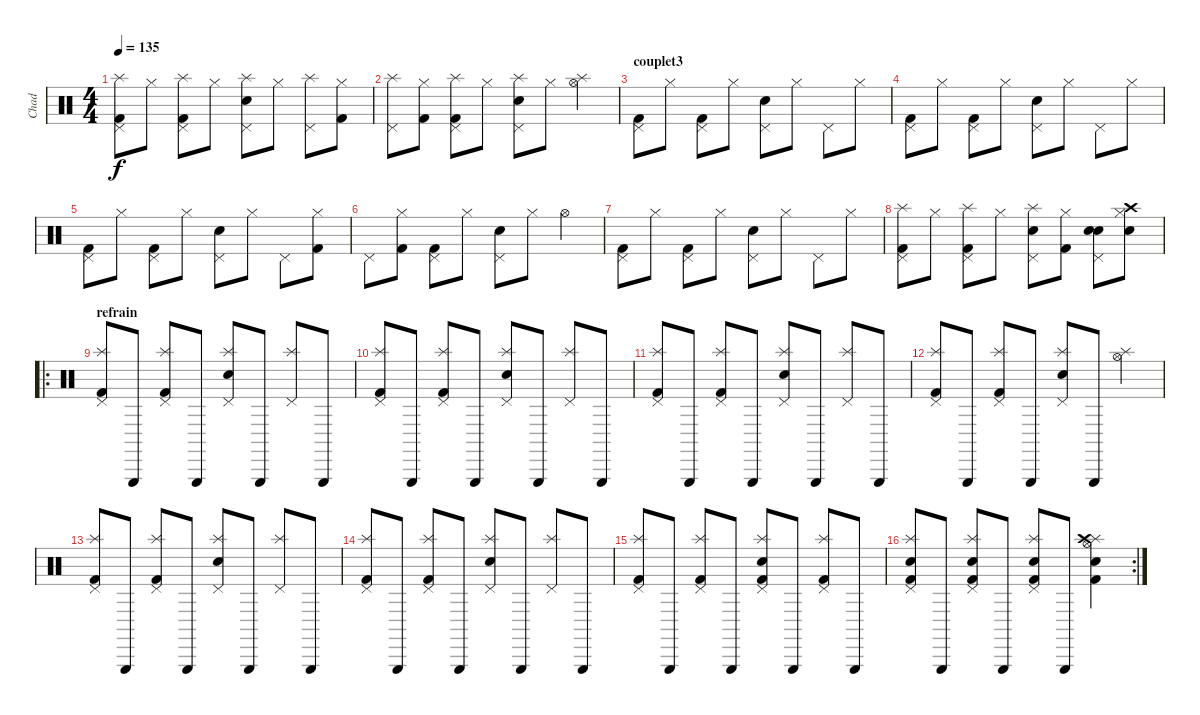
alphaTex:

\track ("Chad" "Chad") {instrument percussion}
\staff {score}
\articulation defaults
\ts (4 4)
\tempo 135
\clef neutral
\ks c
("Splash (hit)" "Pedal Hi-Hat (hit)" "Kick (hit) 2").8{dy f} "Hi-Hat (closed)".8 ("Splash (hit)" "Pedal Hi-Hat (hit)" "Kick (hit) 2").8 "Hi-Hat (closed)".8 ("Splash (hit)" "Pedal Hi-Hat (hit)" "Electric Snare (hit)").8 "Hi-Hat (closed)".8 ("Splash (hit)" "Pedal Hi-Hat (hit)").8 ("Hi-Hat (closed)" "Kick (hit) 2").8 |
("Splash (hit)" "Pedal Hi-Hat (hit)").8 ("Hi-Hat (closed)" "Kick (hit) 2").8 ("Splash (hit)" "Pedal Hi-Hat (hit)" "Kick (hit) 2").8 "Hi-Hat (closed)".8 ("Splash (hit)" "Pedal Hi-Hat (hit)" "Electric Snare (hit)").8 "Hi-Hat (closed)".8 ("Splash (hit)" "Hi-Hat (open)").4 |
\section ("" "couplet3")
("Pedal Hi-Hat (hit)" "Kick (hit) 2").8 "Hi-Hat (closed)".8 ("Pedal Hi-Hat (hit)" "Kick (hit) 2").8 "Hi-Hat (closed)".8 ("Pedal Hi-Hat (hit)" "Electric Snare (hit)").8 "Hi-Hat (closed)".8 "Pedal Hi-Hat (hit)".8 "Hi-Hat (closed)".8 |
("Pedal Hi-Hat (hit)" "Kick (hit) 2").8 "Hi-Hat (closed)".8 ("Pedal Hi-Hat (hit)" "Kick (hit) 2").8 "Hi-Hat (closed)".8 ("Pedal Hi-Hat (hit)" "Electric Snare (hit)").8 "Hi-Hat (closed)".8 "Pedal Hi-Hat (hit)".8 "Hi-Hat (closed)".8 |
("Pedal Hi-Hat (hit)" "Kick (hit) 2").8 "Hi-Hat (closed)".8 ("Pedal Hi-Hat (hit)" "Kick (hit) 2").8 "Hi-Hat (closed)".8 ("Pedal Hi-Hat (hit)" "Electric Snare (hit)").8 "Hi-Hat (closed)".8 "Pedal Hi-Hat (hit)".8 ("Hi-Hat (closed)" "Kick (hit) 2").8 |
"Pedal Hi-Hat (hit)".8 ("Hi-Hat (closed)" "Kick (hit) 2").8 ("Pedal Hi-Hat (hit)" "Kick (hit) 2").8 "Hi-Hat (closed)".8 ("Pedal Hi-Hat (hit)" "Electric Snare (hit)").8 "Hi-Hat (closed)".8 "Hi-Hat (open)".4 |
("Pedal Hi-Hat (hit)" "Kick (hit) 2").8 "Hi-Hat (closed)".8 ("Pedal Hi-Hat (hit)" "Kick (hit) 2").8 "Hi-Hat (closed)".8 ("Pedal Hi-Hat (hit)" "Electric Snare (hit)").8 "Hi-Hat (closed)".8 "Pedal Hi-Hat (hit)".8 "Hi-Hat (closed)".8 |
("Splash (hit)" "Pedal Hi-Hat (hit)" "Kick (hit) 2").8 "Hi-Hat (closed)".8 ("Splash (hit)" "Pedal Hi-Hat (hit)" "Kick (hit) 2").8 "Hi-Hat (closed)".8 ("Splash (hit)" "Pedal Hi-Hat (hit)" "Electric Snare (hit)").8 ("Hi-Hat (closed)" "Kick (hit) 2").8 ("Pedal Hi-Hat (hit)" "Electric Snare (hit)" "Snare (hit) 2").8 ("Crash high (hit)" "Hi-Hat (closed)" "Snare (hit) 2").8 |
\ro
\section ("" "refrain")
("Splash (hit)" "Pedal Hi-Hat (hit)" "Kick (hit) 2").8 "Triangle (hit)".8 ("Splash (hit)" "Pedal Hi-Hat (hit)" "Kick (hit) 2").8 "Triangle (hit)".8 ("Splash (hit)" "Pedal Hi-Hat (hit)" "Electric Snare (hit)").8 "Triangle (hit)".8 ("Splash (hit)" "Pedal Hi-Hat (hit)").8 "Triangle (hit)".8 |
("Splash (hit)" "Pedal Hi-Hat (hit)" "Kick (hit) 2").8 "Triangle (hit)".8 ("Splash (hit)" "Pedal Hi-Hat (hit)" "Kick (hit) 2").8 "Triangle (hit)".8 ("Splash (hit)" "Pedal Hi-Hat (hit)" "Electric Snare (hit)").8 "Triangle (hit)".8 ("Splash (hit)" "Pedal Hi-Hat (hit)").8 "Triangle (hit)".8 |
("Splash (hit)" "Pedal Hi-Hat (hit)" "Kick (hit) 2").8 "Triangle (hit)".8 ("Splash (hit)" "Pedal Hi-Hat (hit)" "Kick (hit) 2").8 "Triangle (hit)".8 ("Splash (hit)" "Pedal Hi-Hat (hit)" "Electric Snare (hit)").8 "Triangle (hit)".8 ("Splash (hit)" "Pedal Hi-Hat (hit)").8 "Triangle (hit)".8 |
("Splash (hit)" "Pedal Hi-Hat (hit)" "Kick (hit) 2").8 "Triangle (hit)".8 ("Splash (hit)" "Pedal Hi-Hat (hit)" "Kick (hit) 2").8 "Triangle (hit)".8 ("Splash (hit)" "Pedal Hi-Hat (hit)" "Electric Snare (hit)").8 "Triangle (hit)".8 ("Splash (hit)" "Hi-Hat (open)").4 |
("Splash (hit)" "Pedal Hi-Hat (hit)" "Kick (hit) 2").8 "Triangle (hit)".8 ("Splash (hit)" "Pedal Hi-Hat (hit)" "Kick (hit) 2").8 "Triangle (hit)".8 ("Splash (hit)" "Pedal Hi-Hat (hit)" "Electric Snare (hit)").8 "Triangle (hit)".8 ("Splash (hit)" "Pedal Hi-Hat (hit)").8 "Triangle (hit)".8 |
("Splash (hit)" "Pedal Hi-Hat (hit)" "Kick (hit) 2").8 "Triangle (hit)".8 ("Splash (hit)" "Pedal Hi-Hat (hit)" "Kick (hit) 2").8 "Triangle (hit)".8 ("Splash (hit)" "Pedal Hi-Hat (hit)" "Electric Snare (hit)").8 "Triangle (hit)".8 ("Splash (hit)" "Pedal Hi-Hat (hit)").8 "Triangle (hit)".8 |
("Splash (hit)" "Pedal Hi-Hat (hit)" "Kick (hit) 2").8 "Triangle (hit)".8 ("Splash (hit)" "Pedal Hi-Hat (hit)" "Kick (hit) 2").8 "Triangle (hit)".8 ("Splash (hit)" "Pedal Hi-Hat (hit)" "Electric Snare (hit)" "Kick (hit) 2").8 "Triangle (hit)".8 ("Splash (hit)" "Pedal Hi-Hat (hit)" "Kick (hit) 2").8 "Triangle (hit)".8 |
\rc 2
("Splash (hit)" "Pedal Hi-Hat (hit)" "Electric Snare (hit)" "Kick (hit) 2").8 "Triangle (hit)".8 ("Splash (hit)" "Pedal Hi-Hat (hit)" "Electric Snare (hit)" "Kick (hit) 2").8 "Triangle (hit)".8 ("Splash (hit)" "Pedal Hi-Hat (hit)" "Electric Snare (hit)" "Kick (hit) 2").8 "Triangle (hit)".8 ("Splash (hit)" "Hi-Hat (open)" "Crash high (hit)" "Electric Snare (hit)" "Kick (hit) 2").4
